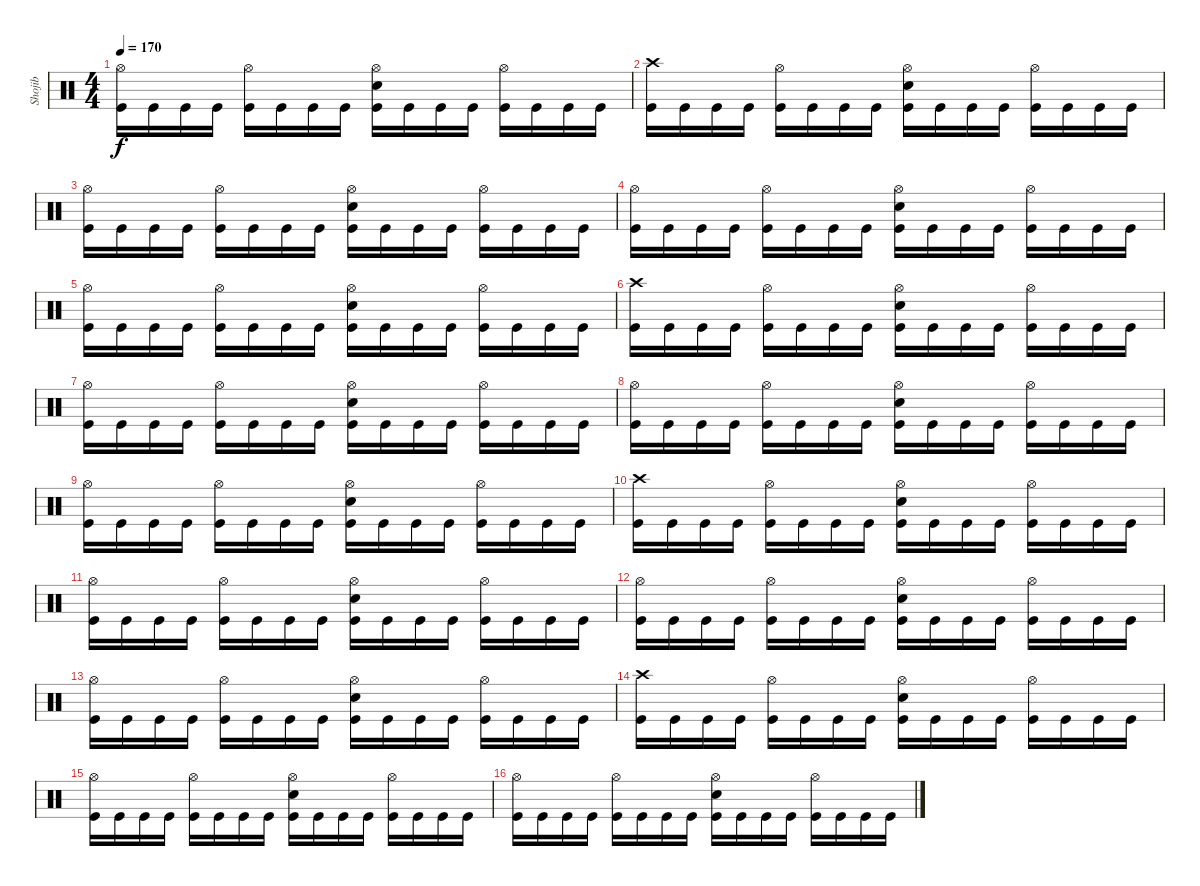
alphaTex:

\track ("Shojib" "Shojib") {instrument percussion}
\staff {score}
\articulation defaults
\ts (4 4)
\tempo 170
\clef neutral
\ks c
("Hi-Hat (open)" "Kick (hit)").16{dy f} "Kick (hit)".16 "Kick (hit)".16 "Kick (hit)".16 ("Hi-Hat (open)" "Kick (hit)").16 "Kick (hit)".16 "Kick (hit)".16 "Kick (hit)".16 ("Hi-Hat (open)" "Electric Snare (hit)" "Kick (hit)").16 "Kick (hit)".16 "Kick (hit)".16 "Kick (hit)".16 ("Hi-Hat (open)" "Kick (hit)").16 "Kick (hit)".16 "Kick (hit)".16 "Kick (hit)".16 |
("Crash high (hit)" "Kick (hit)").16 "Kick (hit)".16 "Kick (hit)".16 "Kick (hit)".16 ("Hi-Hat (open)" "Kick (hit)").16 "Kick (hit)".16 "Kick (hit)".16 "Kick (hit)".16 ("Hi-Hat (open)" "Electric Snare (hit)" "Kick (hit)").16 "Kick (hit)".16 "Kick (hit)".16 "Kick (hit)".16 ("Hi-Hat (open)" "Kick (hit)").16 "Kick (hit)".16 "Kick (hit)".16 "Kick (hit)".16 |
("Hi-Hat (open)" "Kick (hit)").16 "Kick (hit)".16 "Kick (hit)".16 "Kick (hit)".16 ("Hi-Hat (open)" "Kick (hit)").16 "Kick (hit)".16 "Kick (hit)".16 "Kick (hit)".16 ("Hi-Hat (open)" "Electric Snare (hit)" "Kick (hit)").16 "Kick (hit)".16 "Kick (hit)".16 "Kick (hit)".16 ("Hi-Hat (open)" "Kick (hit)").16 "Kick (hit)".16 "Kick (hit)".16 "Kick (hit)".16 |
("Hi-Hat (open)" "Kick (hit)").16 "Kick (hit)".16 "Kick (hit)".16 "Kick (hit)".16 ("Hi-Hat (open)" "Kick (hit)").16 "Kick (hit)".16 "Kick (hit)".16 "Kick (hit)".16 ("Hi-Hat (open)" "Electric Snare (hit)" "Kick (hit)").16 "Kick (hit)".16 "Kick (hit)".16 "Kick (hit)".16 ("Hi-Hat (open)" "Kick (hit)").16 "Kick (hit)".16 "Kick (hit)".16 "Kick (hit)".16 |
("Hi-Hat (open)" "Kick (hit)").16 "Kick (hit)".16 "Kick (hit)".16 "Kick (hit)".16 ("Hi-Hat (open)" "Kick (hit)").16 "Kick (hit)".16 "Kick (hit)".16 "Kick (hit)".16 ("Hi-Hat (open)" "Electric Snare (hit)" "Kick (hit)").16 "Kick (hit)".16 "Kick (hit)".16 "Kick (hit)".16 ("Hi-Hat (open)" "Kick (hit)").16 "Kick (hit)".16 "Kick (hit)".16 "Kick (hit)".16 |
("Crash high (hit)" "Kick (hit)").16 "Kick (hit)".16 "Kick (hit)".16 "Kick (hit)".16 ("Hi-Hat (open)" "Kick (hit)").16 "Kick (hit)".16 "Kick (hit)".16 "Kick (hit)".16 ("Hi-Hat (open)" "Electric Snare (hit)" "Kick (hit)").16 "Kick (hit)".16 "Kick (hit)".16 "Kick (hit)".16 ("Hi-Hat (open)" "Kick (hit)").16 "Kick (hit)".16 "Kick (hit)".16 "Kick (hit)".16 |
("Hi-Hat (open)" "Kick (hit)").16 "Kick (hit)".16 "Kick (hit)".16 "Kick (hit)".16 ("Hi-Hat (open)" "Kick (hit)").16 "Kick (hit)".16 "Kick (hit)".16 "Kick (hit)".16 ("Hi-Hat (open)" "Electric Snare (hit)" "Kick (hit)").16 "Kick (hit)".16 "Kick (hit)".16 "Kick (hit)".16 ("Hi-Hat (open)" "Kick (hit)").16 "Kick (hit)".16 "Kick (hit)".16 "Kick (hit)".16 |
("Hi-Hat (open)" "Kick (hit)").16 "Kick (hit)".16 "Kick (hit)".16 "Kick (hit)".16 ("Hi-Hat (open)" "Kick (hit)").16 "Kick (hit)".16 "Kick (hit)".16 "Kick (hit)".16 ("Hi-Hat (open)" "Electric Snare (hit)" "Kick (hit)").16 "Kick (hit)".16 "Kick (hit)".16 "Kick (hit)".16 ("Hi-Hat (open)" "Kick (hit)").16 "Kick (hit)".16 "Kick (hit)".16 "Kick (hit)".16 |
("Hi-Hat (open)" "Kick (hit)").16 "Kick (hit)".16 "Kick (hit)".16 "Kick (hit)".16 ("Hi-Hat (open)" "Kick (hit)").16 "Kick (hit)".16 "Kick (hit)".16 "Kick (hit)".16 ("Hi-Hat (open)" "Electric Snare (hit)" "Kick (hit)").16 "Kick (hit)".16 "Kick (hit)".16 "Kick (hit)".16 ("Hi-Hat (open)" "Kick (hit)").16 "Kick (hit)".16 "Kick (hit)".16 "Kick (hit)".16 |
("Crash high (hit)" "Kick (hit)").16 "Kick (hit)".16 "Kick (hit)".16 "Kick (hit)".16 ("Hi-Hat (open)" "Kick (hit)").16 "Kick (hit)".16 "Kick (hit)".16 "Kick (hit)".16 ("Hi-Hat (open)" "Electric Snare (hit)" "Kick (hit)").16 "Kick (hit)".16 "Kick (hit)".16 "Kick (hit)".16 ("Hi-Hat (open)" "Kick (hit)").16 "Kick (hit)".16 "Kick (hit)".16 "Kick (hit)".16 |
("Hi-Hat (open)" "Kick (hit)").16 "Kick (hit)".16 "Kick (hit)".16 "Kick (hit)".16 ("Hi-Hat (open)" "Kick (hit)").16 "Kick (hit)".16 "Kick (hit)".16 "Kick (hit)".16 ("Hi-Hat (open)" "Electric Snare (hit)" "Kick (hit)").16 "Kick (hit)".16 "Kick (hit)".16 "Kick (hit)".16 ("Hi-Hat (open)" "Kick (hit)").16 "Kick (hit)".16 "Kick (hit)".16 "Kick (hit)".16 |
("Hi-Hat (open)" "Kick (hit)").16 "Kick (hit)".16 "Kick (hit)".16 "Kick (hit)".16 ("Hi-Hat (open)" "Kick (hit)").16 "Kick (hit)".16 "Kick (hit)".16 "Kick (hit)".16 ("Hi-Hat (open)" "Electric Snare (hit)" "Kick (hit)").16 "Kick (hit)".16 "Kick (hit)".16 "Kick (hit)".16 ("Hi-Hat (open)" "Kick (hit)").16 "Kick (hit)".16 "Kick (hit)".16 "Kick (hit)".16 |
("Hi-Hat (open)" "Kick (hit)").16 "Kick (hit)".16 "Kick (hit)".16 "Kick (hit)".16 ("Hi-Hat (open)" "Kick (hit)").16 "Kick (hit)".16 "Kick (hit)".16 "Kick (hit)".16 ("Hi-Hat (open)" "Electric Snare (hit)" "Kick (hit)").16 "Kick (hit)".16 "Kick (hit)".16 "Kick (hit)".16 ("Hi-Hat (open)" "Kick (hit)").16 "Kick (hit)".16 "Kick (hit)".16 "Kick (hit)".16 |
("Crash high (hit)" "Kick (hit)").16 "Kick (hit)".16 "Kick (hit)".16 "Kick (hit)".16 ("Hi-Hat (open)" "Kick (hit)").16 "Kick (hit)".16 "Kick (hit)".16 "Kick (hit)".16 ("Hi-Hat (open)" "Electric Snare (hit)" "Kick (hit)").16 "Kick (hit)".16 "Kick (hit)".16 "Kick (hit)".16 ("Hi-Hat (open)" "Kick (hit)").16 "Kick (hit)".16 "Kick (hit)".16 "Kick (hit)".16 |
("Hi-Hat (open)" "Kick (hit)").16 "Kick (hit)".16 "Kick (hit)".16 "Kick (hit)".16 ("Hi-Hat (open)" "Kick (hit)").16 "Kick (hit)".16 "Kick (hit)".16 "Kick (hit)".16 ("Hi-Hat (open)" "Electric Snare (hit)" "Kick (hit)").16 "Kick (hit)".16 "Kick (hit)".16 "Kick (hit)".16 ("Hi-Hat (open)" "Kick (hit)").16 "Kick (hit)".16 "Kick (hit)".16 "Kick (hit)".16 |
("Hi-Hat (open)" "Kick (hit)").16 "Kick (hit)".16 "Kick (hit)".16 "Kick (hit)".16 ("Hi-Hat (open)" "Kick (hit)").16 "Kick (hit)".16 "Kick (hit)".16 "Kick (hit)".16 ("Hi-Hat (open)" "Electric Snare (hit)" "Kick (hit)").16 "Kick (hit)".16 "Kick (hit)".16 "Kick (hit)".16 ("Hi-Hat (open)" "Kick (hit)").16 "Kick (hit)".16 "Kick (hit)".16 "Kick (hit)".16
